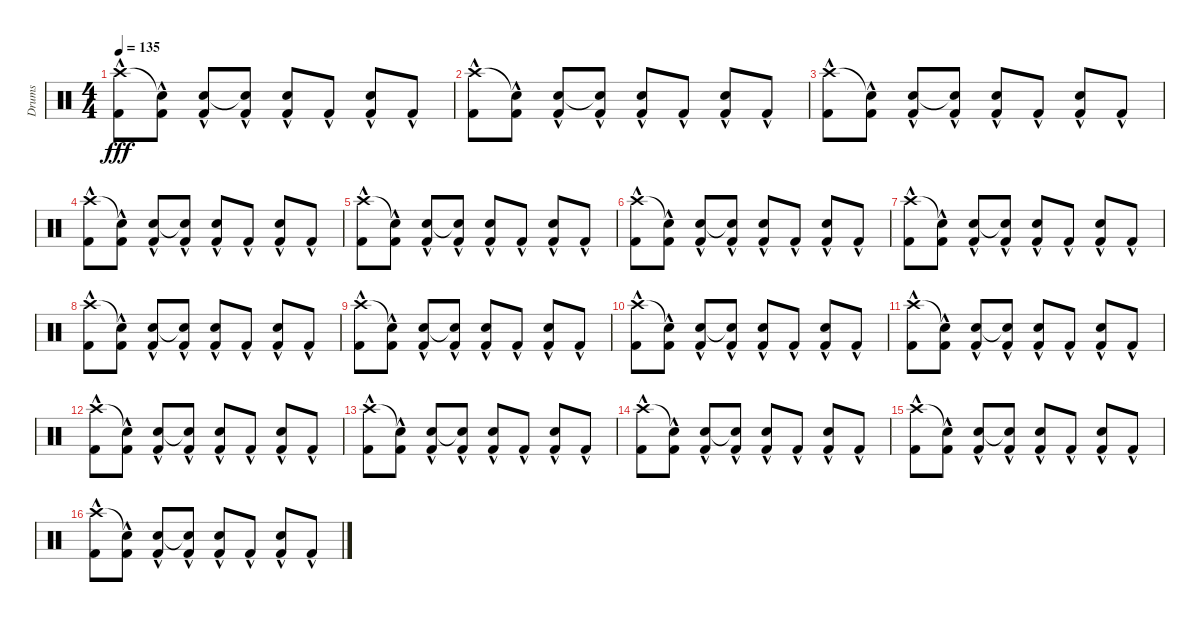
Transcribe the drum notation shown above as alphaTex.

\track ("Drums" "Drums") {instrument percussion}
\staff {score}
\articulation defaults
\ts (4 4)
\tempo 135
\clef neutral
\ks c
("Crash high (hit)"{hac} "Kick (hit) 2"{hac}).8{dy fff} ("Snare (hit)"{t} "Kick (hit) 2"{hac}).8 ("Snare (hit) 2" "Kick (hit) 2"{hac}).8 ("Snare (hit)"{t} "Kick (hit) 2"{hac}).8 ("Snare (hit) 2" "Kick (hit) 2"{hac}).8 "Kick (hit) 2"{hac}.8 ("Snare (hit) 2" "Kick (hit) 2"{hac}).8 "Kick (hit) 2"{hac}.8 |
("Crash high (hit)"{hac} "Kick (hit) 2"{hac}).8 ("Snare (hit)"{t} "Kick (hit) 2"{hac}).8 ("Snare (hit) 2" "Kick (hit) 2"{hac}).8 ("Snare (hit)"{t} "Kick (hit) 2"{hac}).8 ("Snare (hit) 2" "Kick (hit) 2"{hac}).8 "Kick (hit) 2"{hac}.8 ("Snare (hit) 2" "Kick (hit) 2"{hac}).8 "Kick (hit) 2"{hac}.8 |
("Crash high (hit)"{hac} "Kick (hit) 2"{hac}).8 ("Snare (hit)"{t} "Kick (hit) 2"{hac}).8 ("Snare (hit) 2" "Kick (hit) 2"{hac}).8 ("Snare (hit)"{t} "Kick (hit) 2"{hac}).8 ("Snare (hit) 2" "Kick (hit) 2"{hac}).8 "Kick (hit) 2"{hac}.8 ("Snare (hit) 2" "Kick (hit) 2"{hac}).8 "Kick (hit) 2"{hac}.8 |
("Crash high (hit)"{hac} "Kick (hit) 2"{hac}).8 ("Snare (hit)"{t} "Kick (hit) 2"{hac}).8 ("Snare (hit) 2" "Kick (hit) 2"{hac}).8 ("Snare (hit)"{t} "Kick (hit) 2"{hac}).8 ("Snare (hit) 2" "Kick (hit) 2"{hac}).8 "Kick (hit) 2"{hac}.8 ("Snare (hit) 2" "Kick (hit) 2"{hac}).8 "Kick (hit) 2"{hac}.8 |
("Crash high (hit)"{hac} "Kick (hit) 2"{hac}).8 ("Snare (hit)"{t} "Kick (hit) 2"{hac}).8 ("Snare (hit) 2" "Kick (hit) 2"{hac}).8 ("Snare (hit)"{t} "Kick (hit) 2"{hac}).8 ("Snare (hit) 2" "Kick (hit) 2"{hac}).8 "Kick (hit) 2"{hac}.8 ("Snare (hit) 2" "Kick (hit) 2"{hac}).8 "Kick (hit) 2"{hac}.8 |
("Crash high (hit)"{hac} "Kick (hit) 2"{hac}).8 ("Snare (hit)"{t} "Kick (hit) 2"{hac}).8 ("Snare (hit) 2" "Kick (hit) 2"{hac}).8 ("Snare (hit)"{t} "Kick (hit) 2"{hac}).8 ("Snare (hit) 2" "Kick (hit) 2"{hac}).8 "Kick (hit) 2"{hac}.8 ("Snare (hit) 2" "Kick (hit) 2"{hac}).8 "Kick (hit) 2"{hac}.8 |
("Crash high (hit)"{hac} "Kick (hit) 2"{hac}).8 ("Snare (hit)"{t} "Kick (hit) 2"{hac}).8 ("Snare (hit) 2" "Kick (hit) 2"{hac}).8 ("Snare (hit)"{t} "Kick (hit) 2"{hac}).8 ("Snare (hit) 2" "Kick (hit) 2"{hac}).8 "Kick (hit) 2"{hac}.8 ("Snare (hit) 2" "Kick (hit) 2"{hac}).8 "Kick (hit) 2"{hac}.8 |
("Crash high (hit)"{hac} "Kick (hit) 2"{hac}).8 ("Snare (hit)"{t} "Kick (hit) 2"{hac}).8 ("Snare (hit) 2" "Kick (hit) 2"{hac}).8 ("Snare (hit)"{t} "Kick (hit) 2"{hac}).8 ("Snare (hit) 2" "Kick (hit) 2"{hac}).8 "Kick (hit) 2"{hac}.8 ("Snare (hit) 2" "Kick (hit) 2"{hac}).8 "Kick (hit) 2"{hac}.8 |
("Crash high (hit)"{hac} "Kick (hit) 2"{hac}).8 ("Snare (hit)"{t} "Kick (hit) 2"{hac}).8 ("Snare (hit) 2" "Kick (hit) 2"{hac}).8 ("Snare (hit)"{t} "Kick (hit) 2"{hac}).8 ("Snare (hit) 2" "Kick (hit) 2"{hac}).8 "Kick (hit) 2"{hac}.8 ("Snare (hit) 2" "Kick (hit) 2"{hac}).8 "Kick (hit) 2"{hac}.8 |
("Crash high (hit)"{hac} "Kick (hit) 2"{hac}).8 ("Snare (hit)"{t} "Kick (hit) 2"{hac}).8 ("Snare (hit) 2" "Kick (hit) 2"{hac}).8 ("Snare (hit)"{t} "Kick (hit) 2"{hac}).8 ("Snare (hit) 2" "Kick (hit) 2"{hac}).8 "Kick (hit) 2"{hac}.8 ("Snare (hit) 2" "Kick (hit) 2"{hac}).8 "Kick (hit) 2"{hac}.8 |
("Crash high (hit)"{hac} "Kick (hit) 2"{hac}).8 ("Snare (hit)"{t} "Kick (hit) 2"{hac}).8 ("Snare (hit) 2" "Kick (hit) 2"{hac}).8 ("Snare (hit)"{t} "Kick (hit) 2"{hac}).8 ("Snare (hit) 2" "Kick (hit) 2"{hac}).8 "Kick (hit) 2"{hac}.8 ("Snare (hit) 2" "Kick (hit) 2"{hac}).8 "Kick (hit) 2"{hac}.8 |
("Crash high (hit)"{hac} "Kick (hit) 2"{hac}).8 ("Snare (hit)"{t} "Kick (hit) 2"{hac}).8 ("Snare (hit) 2" "Kick (hit) 2"{hac}).8 ("Snare (hit)"{t} "Kick (hit) 2"{hac}).8 ("Snare (hit) 2" "Kick (hit) 2"{hac}).8 "Kick (hit) 2"{hac}.8 ("Snare (hit) 2" "Kick (hit) 2"{hac}).8 "Kick (hit) 2"{hac}.8 |
("Crash high (hit)"{hac} "Kick (hit) 2"{hac}).8 ("Snare (hit)"{t} "Kick (hit) 2"{hac}).8 ("Snare (hit) 2" "Kick (hit) 2"{hac}).8 ("Snare (hit)"{t} "Kick (hit) 2"{hac}).8 ("Snare (hit) 2" "Kick (hit) 2"{hac}).8 "Kick (hit) 2"{hac}.8 ("Snare (hit) 2" "Kick (hit) 2"{hac}).8 "Kick (hit) 2"{hac}.8 |
("Crash high (hit)"{hac} "Kick (hit) 2"{hac}).8 ("Snare (hit)"{t} "Kick (hit) 2"{hac}).8 ("Snare (hit) 2" "Kick (hit) 2"{hac}).8 ("Snare (hit)"{t} "Kick (hit) 2"{hac}).8 ("Snare (hit) 2" "Kick (hit) 2"{hac}).8 "Kick (hit) 2"{hac}.8 ("Snare (hit) 2" "Kick (hit) 2"{hac}).8 "Kick (hit) 2"{hac}.8 |
("Crash high (hit)"{hac} "Kick (hit) 2"{hac}).8 ("Snare (hit)"{t} "Kick (hit) 2"{hac}).8 ("Snare (hit) 2" "Kick (hit) 2"{hac}).8 ("Snare (hit)"{t} "Kick (hit) 2"{hac}).8 ("Snare (hit) 2" "Kick (hit) 2"{hac}).8 "Kick (hit) 2"{hac}.8 ("Snare (hit) 2" "Kick (hit) 2"{hac}).8 "Kick (hit) 2"{hac}.8 |
("Crash high (hit)"{hac} "Kick (hit) 2"{hac}).8 ("Snare (hit)"{t} "Kick (hit) 2"{hac}).8 ("Snare (hit) 2" "Kick (hit) 2"{hac}).8 ("Snare (hit)"{t} "Kick (hit) 2"{hac}).8 ("Snare (hit) 2" "Kick (hit) 2"{hac}).8 "Kick (hit) 2"{hac}.8 ("Snare (hit) 2" "Kick (hit) 2"{hac}).8 "Kick (hit) 2"{hac}.8
